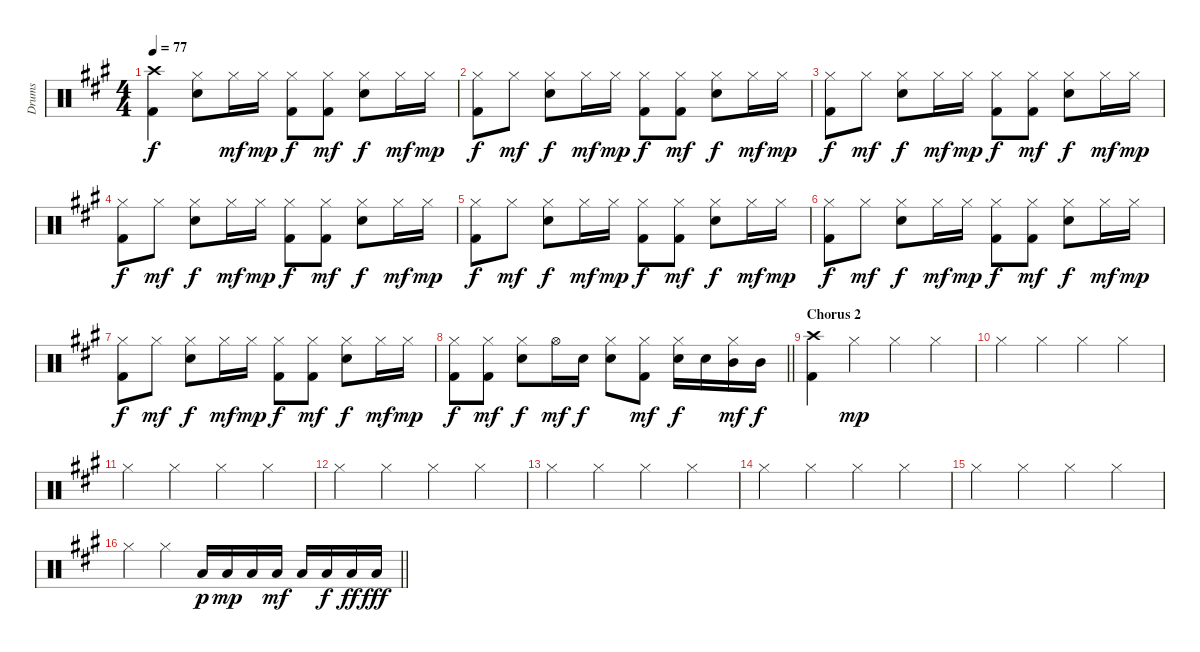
\track ("Drums" "Drums") {instrument percussion}
\staff {score}
\articulation defaults
\ts (4 4)
\tempo 77
\clef neutral
\ks a
("Crash high (hit)" "Kick (hit) 2").4{dy f} ("Hi-Hat (closed)" "Electric Snare (hit)").8 "Hi-Hat (closed)".16{dy mf} "Hi-Hat (closed)".16{dy mp} ("Hi-Hat (closed)" "Kick (hit) 2").8{dy f} ("Hi-Hat (closed)" "Kick (hit) 2").8{dy mf} ("Hi-Hat (closed)" "Electric Snare (hit)").8{dy f} "Hi-Hat (closed)".16{dy mf} "Hi-Hat (closed)".16{dy mp} |
("Hi-Hat (closed)" "Kick (hit) 2").8{dy f} "Hi-Hat (closed)".8{dy mf} ("Hi-Hat (closed)" "Electric Snare (hit)").8{dy f} "Hi-Hat (closed)".16{dy mf} "Hi-Hat (closed)".16{dy mp} ("Hi-Hat (closed)" "Kick (hit) 2").8{dy f} ("Hi-Hat (closed)" "Kick (hit) 2").8{dy mf} ("Hi-Hat (closed)" "Electric Snare (hit)").8{dy f} "Hi-Hat (closed)".16{dy mf} "Hi-Hat (closed)".16{dy mp} |
("Hi-Hat (closed)" "Kick (hit) 2").8{dy f} "Hi-Hat (closed)".8{dy mf} ("Hi-Hat (closed)" "Electric Snare (hit)").8{dy f} "Hi-Hat (closed)".16{dy mf} "Hi-Hat (closed)".16{dy mp} ("Hi-Hat (closed)" "Kick (hit) 2").8{dy f} ("Hi-Hat (closed)" "Kick (hit) 2").8{dy mf} ("Hi-Hat (closed)" "Electric Snare (hit)").8{dy f} "Hi-Hat (closed)".16{dy mf} "Hi-Hat (closed)".16{dy mp} |
("Hi-Hat (closed)" "Kick (hit) 2").8{dy f} "Hi-Hat (closed)".8{dy mf} ("Hi-Hat (closed)" "Electric Snare (hit)").8{dy f} "Hi-Hat (closed)".16{dy mf} "Hi-Hat (closed)".16{dy mp} ("Hi-Hat (closed)" "Kick (hit) 2").8{dy f} ("Hi-Hat (closed)" "Kick (hit) 2").8{dy mf} ("Hi-Hat (closed)" "Electric Snare (hit)").8{dy f} "Hi-Hat (closed)".16{dy mf} "Hi-Hat (closed)".16{dy mp} |
("Hi-Hat (closed)" "Kick (hit) 2").8{dy f} "Hi-Hat (closed)".8{dy mf} ("Hi-Hat (closed)" "Electric Snare (hit)").8{dy f} "Hi-Hat (closed)".16{dy mf} "Hi-Hat (closed)".16{dy mp} ("Hi-Hat (closed)" "Kick (hit) 2").8{dy f} ("Hi-Hat (closed)" "Kick (hit) 2").8{dy mf} ("Hi-Hat (closed)" "Electric Snare (hit)").8{dy f} "Hi-Hat (closed)".16{dy mf} "Hi-Hat (closed)".16{dy mp} |
("Hi-Hat (closed)" "Kick (hit) 2").8{dy f} "Hi-Hat (closed)".8{dy mf} ("Hi-Hat (closed)" "Electric Snare (hit)").8{dy f} "Hi-Hat (closed)".16{dy mf} "Hi-Hat (closed)".16{dy mp} ("Hi-Hat (closed)" "Kick (hit) 2").8{dy f} ("Hi-Hat (closed)" "Kick (hit) 2").8{dy mf} ("Hi-Hat (closed)" "Electric Snare (hit)").8{dy f} "Hi-Hat (closed)".16{dy mf} "Hi-Hat (closed)".16{dy mp} |
("Hi-Hat (closed)" "Kick (hit) 2").8{dy f} "Hi-Hat (closed)".8{dy mf} ("Hi-Hat (closed)" "Electric Snare (hit)").8{dy f} "Hi-Hat (closed)".16{dy mf} "Hi-Hat (closed)".16{dy mp} ("Hi-Hat (closed)" "Kick (hit) 2").8{dy f} ("Hi-Hat (closed)" "Kick (hit) 2").8{dy mf} ("Hi-Hat (closed)" "Electric Snare (hit)").8{dy f} "Hi-Hat (closed)".16{dy mf} "Hi-Hat (closed)".16{dy mp} |
\barLineRight lightlight
("Hi-Hat (closed)" "Kick (hit) 2").8{dy f} ("Hi-Hat (closed)" "Kick (hit) 2").8{dy mf} ("Hi-Hat (closed)" "Electric Snare (hit)").8{dy f} "Hi-Hat (open)".16{dy mf} "Electric Snare (hit)".16{dy f} ("Hi-Hat (closed)" "Electric Snare (hit)").8 ("Hi-Hat (closed)" "Kick (hit) 2").8{dy mf} ("Hi-Hat (closed)" "Electric Snare (hit)").16{dy f} "Electric Snare (hit)".16 ("Hi-Hat (closed)" "Mid Tom (hit)").16{dy mf} "Mid Tom (hit)".16{dy f} |
\section ("" "Chorus 2")
("Crash high (hit)" "Kick (hit) 2").4 "Hi-Hat (closed)".4{dy mp} "Hi-Hat (closed)".4 "Hi-Hat (closed)".4 |
"Hi-Hat (closed)".4 "Hi-Hat (closed)".4 "Hi-Hat (closed)".4 "Hi-Hat (closed)".4 |
"Hi-Hat (closed)".4 "Hi-Hat (closed)".4 "Hi-Hat (closed)".4 "Hi-Hat (closed)".4 |
"Hi-Hat (closed)".4 "Hi-Hat (closed)".4 "Hi-Hat (closed)".4 "Hi-Hat (closed)".4 |
"Hi-Hat (closed)".4 "Hi-Hat (closed)".4 "Hi-Hat (closed)".4 "Hi-Hat (closed)".4 |
"Hi-Hat (closed)".4 "Hi-Hat (closed)".4 "Hi-Hat (closed)".4 "Hi-Hat (closed)".4 |
"Hi-Hat (closed)".4 "Hi-Hat (closed)".4 "Hi-Hat (closed)".4 "Hi-Hat (closed)".4 |
\barLineRight lightlight "Hi-Hat (closed)".4 "Hi-Hat (closed)".4 "Low Tom (hit)".16{dy p} "Low Tom (hit)".16{dy mp} "Low Tom (hit)".16 "Low Tom (hit)".16{dy mf} "Low Tom (hit)".16 "Low Tom (hit)".16{dy f} "Low Tom (hit)".16{dy ff} "Low Tom (hit)".16{dy fff}
